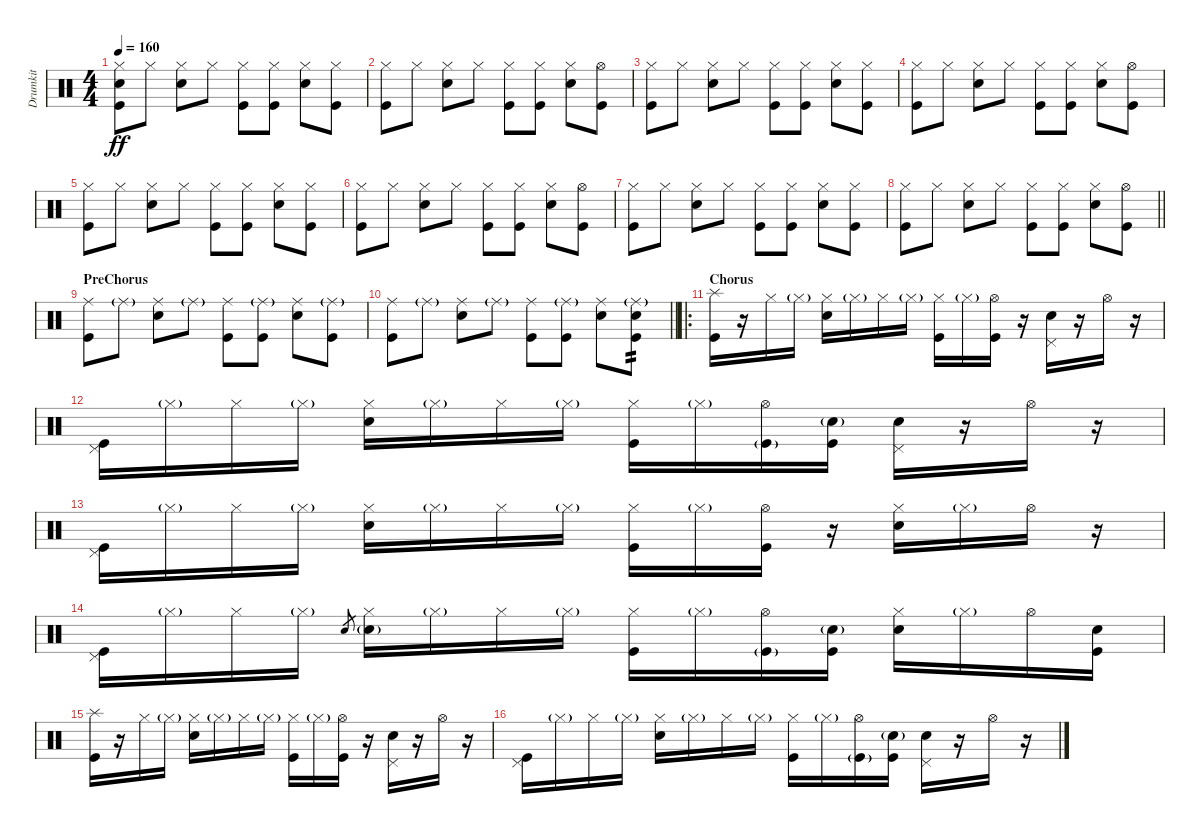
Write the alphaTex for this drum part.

\track ("Drumkit" "Drumkit") {instrument percussion}
\staff {score}
\articulation defaults
\ts (4 4)
\tempo 160
\clef neutral
\ks c
("Hi-Hat (closed)" "Snare (hit) 2" "Kick (hit)").8{dy ff} "Hi-Hat (closed)".8 ("Hi-Hat (closed)" "Snare (hit) 2").8 "Hi-Hat (closed)".8 ("Hi-Hat (closed)" "Kick (hit)").8 ("Hi-Hat (closed)" "Kick (hit)").8 ("Hi-Hat (closed)" "Snare (hit) 2").8 ("Hi-Hat (closed)" "Kick (hit)").8 |
("Hi-Hat (closed)" "Kick (hit)").8 "Hi-Hat (closed)".8 ("Hi-Hat (closed)" "Snare (hit) 2").8 "Hi-Hat (closed)".8 ("Hi-Hat (closed)" "Kick (hit)").8 ("Hi-Hat (closed)" "Kick (hit)").8 ("Hi-Hat (closed)" "Snare (hit) 2").8 ("Hi-Hat (open)" "Kick (hit)").8 |
("Hi-Hat (closed)" "Kick (hit)").8 "Hi-Hat (closed)".8 ("Hi-Hat (closed)" "Snare (hit) 2").8 "Hi-Hat (closed)".8 ("Hi-Hat (closed)" "Kick (hit)").8 ("Hi-Hat (closed)" "Kick (hit)").8 ("Hi-Hat (closed)" "Snare (hit) 2").8 ("Hi-Hat (closed)" "Kick (hit)").8 |
("Hi-Hat (closed)" "Kick (hit)").8 "Hi-Hat (closed)".8 ("Hi-Hat (closed)" "Snare (hit) 2").8 "Hi-Hat (closed)".8 ("Hi-Hat (closed)" "Kick (hit)").8 ("Hi-Hat (closed)" "Kick (hit)").8 ("Hi-Hat (closed)" "Snare (hit) 2").8 ("Hi-Hat (open)" "Kick (hit)").8 |
("Hi-Hat (closed)" "Kick (hit)").8 "Hi-Hat (closed)".8 ("Hi-Hat (closed)" "Snare (hit) 2").8 "Hi-Hat (closed)".8 ("Hi-Hat (closed)" "Kick (hit)").8 ("Hi-Hat (closed)" "Kick (hit)").8 ("Hi-Hat (closed)" "Snare (hit) 2").8 ("Hi-Hat (closed)" "Kick (hit)").8 |
("Hi-Hat (closed)" "Kick (hit)").8 "Hi-Hat (closed)".8 ("Hi-Hat (closed)" "Snare (hit) 2").8 "Hi-Hat (closed)".8 ("Hi-Hat (closed)" "Kick (hit)").8 ("Hi-Hat (closed)" "Kick (hit)").8 ("Hi-Hat (closed)" "Snare (hit) 2").8 ("Hi-Hat (open)" "Kick (hit)").8 |
("Hi-Hat (closed)" "Kick (hit)").8 "Hi-Hat (closed)".8 ("Hi-Hat (closed)" "Snare (hit) 2").8 "Hi-Hat (closed)".8 ("Hi-Hat (closed)" "Kick (hit)").8 ("Hi-Hat (closed)" "Kick (hit)").8 ("Hi-Hat (closed)" "Snare (hit) 2").8 ("Hi-Hat (closed)" "Kick (hit)").8 |
\barLineRight lightlight
("Hi-Hat (closed)" "Kick (hit)").8 "Hi-Hat (closed)".8 ("Hi-Hat (closed)" "Snare (hit) 2").8 "Hi-Hat (closed)".8 ("Hi-Hat (closed)" "Kick (hit)").8 ("Hi-Hat (closed)" "Kick (hit)").8 ("Hi-Hat (closed)" "Snare (hit) 2").8 ("Hi-Hat (open)" "Kick (hit)").8 |
\section ("" "PreChorus")
("Ride (middle)" "Kick (hit)").8 "Ride (middle)"{g}.8 ("Ride (middle)" "Snare (hit) 2").8 "Ride (middle)"{g}.8 ("Ride (middle)" "Kick (hit)").8 ("Ride (middle)"{g} "Kick (hit)").8 ("Ride (middle)" "Snare (hit) 2").8 ("Ride (middle)"{g} "Kick (hit)").8 |
\barLineRight lightlight
("Ride (middle)" "Kick (hit)").8 "Ride (middle)"{g}.8 ("Ride (middle)" "Snare (hit) 2").8 "Ride (middle)"{g}.8 ("Ride (middle)" "Kick (hit)").8 ("Ride (middle)"{g} "Kick (hit)").8 ("Ride (middle)" "Snare (hit) 2").8 ("Ride (middle)"{g} "Snare (hit) 2" "Kick (hit)").8{tp 2} |
\ro
\section ("" "Chorus")
("Splash (hit)" "Kick (hit)").16 r.16 "Hi-Hat (closed)".16 "Hi-Hat (closed)"{g}.16 ("Hi-Hat (closed)" "Snare (hit) 2").16 "Hi-Hat (closed)"{g}.16 "Hi-Hat (closed)".16 "Hi-Hat (closed)"{g}.16 ("Hi-Hat (closed)" "Kick (hit)").16 "Hi-Hat (closed)"{g}.16 ("Hi-Hat (open)" "Kick (hit)").16 r.16 ("Pedal Hi-Hat (hit)" "Snare (hit) 2").16 r.16 "Hi-Hat (open)".16 r.16 |
("Pedal Hi-Hat (hit)" "Kick (hit)").16 "Hi-Hat (closed)"{g}.16 "Hi-Hat (closed)".16 "Hi-Hat (closed)"{g}.16 ("Hi-Hat (closed)" "Snare (hit) 2").16 "Hi-Hat (closed)"{g}.16 "Hi-Hat (closed)".16 "Hi-Hat (closed)"{g}.16 ("Hi-Hat (closed)" "Kick (hit)").16 "Hi-Hat (closed)"{g}.16 ("Hi-Hat (open)" "Kick (hit)"{g}).16 ("Snare (hit) 2"{g} "Kick (hit)").16 ("Pedal Hi-Hat (hit)" "Snare (hit) 2").16 r.16 "Hi-Hat (open)".16 r.16 |
("Pedal Hi-Hat (hit)" "Kick (hit)").16 "Hi-Hat (closed)"{g}.16 "Hi-Hat (closed)".16 "Hi-Hat (closed)"{g}.16 ("Hi-Hat (closed)" "Snare (hit) 2").16 "Hi-Hat (closed)"{g}.16 "Hi-Hat (closed)".16 "Hi-Hat (closed)"{g}.16 ("Hi-Hat (closed)" "Kick (hit)").16 "Hi-Hat (closed)"{g}.16 ("Hi-Hat (open)" "Kick (hit)").16 r.16 ("Hi-Hat (closed)" "Snare (hit) 2").16 "Hi-Hat (closed)"{g}.16 "Hi-Hat (open)".16 r.16 |
("Pedal Hi-Hat (hit)" "Kick (hit)").16 "Hi-Hat (closed)"{g}.16 "Hi-Hat (closed)".16 "Hi-Hat (closed)"{g}.16 "Snare (hit)".8{gr} ("Hi-Hat (closed)" "Snare (hit) 2"{g}).16 "Hi-Hat (closed)"{g}.16 "Hi-Hat (closed)".16 "Hi-Hat (closed)"{g}.16 ("Hi-Hat (closed)" "Kick (hit)").16 "Hi-Hat (closed)"{g}.16 ("Hi-Hat (open)" "Kick (hit)"{g}).16 ("Snare (hit) 2"{g} "Kick (hit)").16 ("Hi-Hat (closed)" "Snare (hit) 2").16 "Hi-Hat (closed)"{g}.16 "Hi-Hat (open)".16 ("Snare (hit) 2" "Kick (hit)").16 |
("Splash (hit)" "Kick (hit)").16 r.16 "Hi-Hat (closed)".16 "Hi-Hat (closed)"{g}.16 ("Hi-Hat (closed)" "Snare (hit) 2").16 "Hi-Hat (closed)"{g}.16 "Hi-Hat (closed)".16 "Hi-Hat (closed)"{g}.16 ("Hi-Hat (closed)" "Kick (hit)").16 "Hi-Hat (closed)"{g}.16 ("Hi-Hat (open)" "Kick (hit)").16 r.16 ("Pedal Hi-Hat (hit)" "Snare (hit) 2").16 r.16 "Hi-Hat (open)".16 r.16 |
("Pedal Hi-Hat (hit)" "Kick (hit)").16 "Hi-Hat (closed)"{g}.16 "Hi-Hat (closed)".16 "Hi-Hat (closed)"{g}.16 ("Hi-Hat (closed)" "Snare (hit) 2").16 "Hi-Hat (closed)"{g}.16 "Hi-Hat (closed)".16 "Hi-Hat (closed)"{g}.16 ("Hi-Hat (closed)" "Kick (hit)").16 "Hi-Hat (closed)"{g}.16 ("Hi-Hat (open)" "Kick (hit)"{g}).16 ("Snare (hit) 2"{g} "Kick (hit)").16 ("Pedal Hi-Hat (hit)" "Snare (hit) 2").16 r.16 "Hi-Hat (open)".16 r.16
